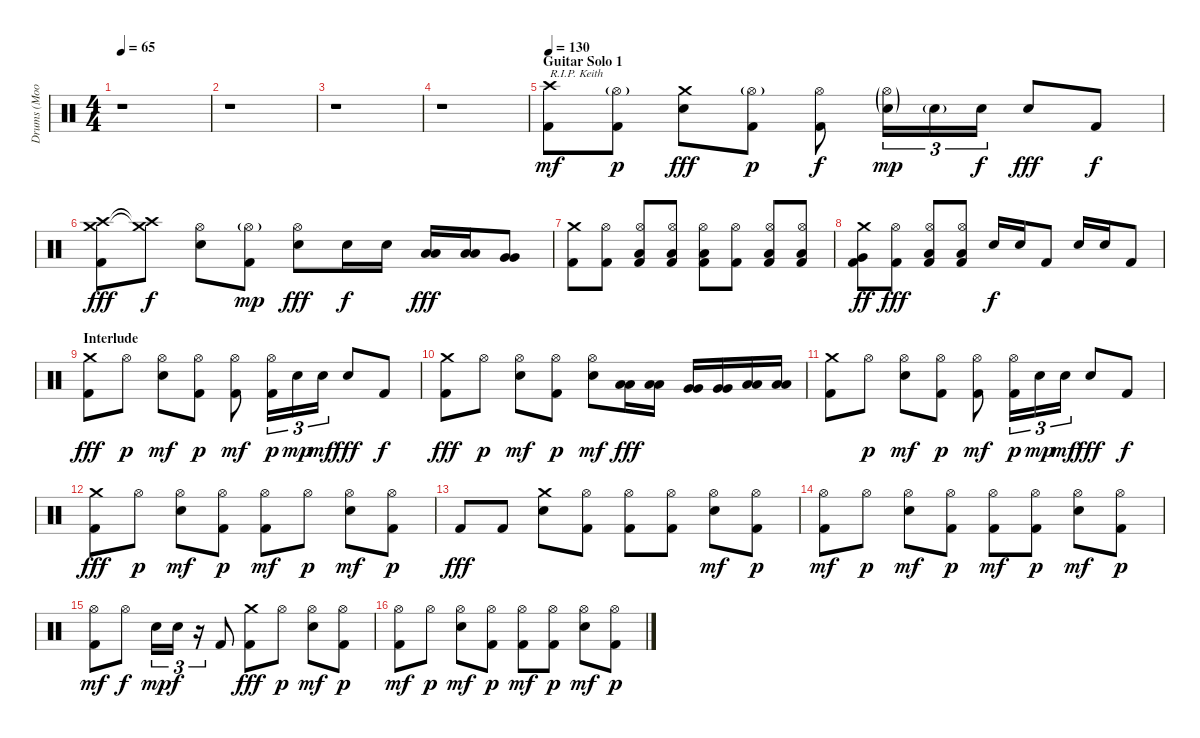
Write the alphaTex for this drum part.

\track ("Drums (Moon (Who else?))" "Drums (Moo") {instrument percussion}
\staff {score}
\articulation defaults
\ts (4 4)
\tempo 65
\clef neutral
\ks c
r.1{dy mf} |
r.1 |
r.1 |
r.1 |
\section ("" "Guitar Solo 1")
\tempo 130
("Crash high (hit)" "Kick (hit) 2").8{txt "R.I.P. Keith"} ("Hi-Hat (open)"{g} "Kick (hit) 2").8{dy p} ("Crash medium (hit)" "Snare (hit) 2").8{dy fff} ("Hi-Hat (open)"{g} "Kick (hit) 2").8{dy p} ("Hi-Hat (open)" "Kick (hit) 2").8{dy f} ("Hi-Hat (open)"{g} "Snare (hit) 2"{g}).16{tu (3 2) dy mp} "Snare (hit) 2"{g}.16{tu (3 2)} "Snare (hit) 2".16{tu (3 2) dy f} "Snare (hit) 2".8{dy fff} "Kick (hit) 2".8{dy f} |
("Crash medium (hit)" "Crash high (hit)" "Kick (hit) 2").8{dy fff} ("Crash medium (hit)"{t} "Crash high (hit)"{t}).8{dy f} ("Hi-Hat (open)" "Snare (hit) 2").8 ("Hi-Hat (open)"{g} "Kick (hit) 2").8{dy mp} ("Hi-Hat (open)" "Snare (hit) 2").8{dy fff} "Snare (hit) 2".16{dy f} "Snare (hit) 2".16 ("Low Tom (hit)" "Low Tom (hit)").16{dy fff} ("Low Tom (hit)" "Low Tom (hit)").16 ("Very Low Tom (hit)" "Very Low Tom (hit)").8 |
("Crash medium (hit)" "Kick (hit) 2").8 ("Hi-Hat (open)" "Kick (hit) 2").8 ("Hi-Hat (open)" "Low Tom (hit)" "Kick (hit) 2").8 ("Hi-Hat (open)" "Low Tom (hit)" "Kick (hit) 2").8 ("Hi-Hat (open)" "Low Tom (hit)" "Kick (hit) 2").8 ("Hi-Hat (open)" "Kick (hit) 2").8 ("Hi-Hat (open)" "Low Tom (hit)" "Kick (hit) 2").8 ("Hi-Hat (open)" "Low Tom (hit)" "Kick (hit) 2").8 |
("Crash medium (hit)" "Very Low Tom (hit)" "Kick (hit) 2").8{dy ff} ("Hi-Hat (open)" "Kick (hit) 2").8{dy fff} ("Hi-Hat (open)" "Low Tom (hit)" "Kick (hit) 2").8 ("Hi-Hat (open)" "Low Floor Tom (hit)" "Kick (hit) 2").8 "Snare (hit) 2".16{dy f} "Snare (hit) 2".16 "Kick (hit) 2".8 "Snare (hit) 2".16 "Snare (hit) 2".16 "Kick (hit) 2".8 |
\section ("" "Interlude")
("Crash medium (hit)" "Kick (hit) 2").8{dy fff volume 16} "Hi-Hat (open)".8{dy p} ("Hi-Hat (open)" "Snare (hit) 2").8{dy mf} ("Hi-Hat (open)" "Kick (hit) 2").8{dy p} ("Hi-Hat (open)" "Kick (hit) 2").8{dy mf} ("Hi-Hat (open)" "Kick (hit) 2").16{tu (3 2) dy p} "Snare (hit) 2".16{tu (3 2) dy mp} "Snare (hit) 2".16{tu (3 2) dy mf} "Snare (hit) 2".8{dy fff} "Kick (hit) 2".8{dy f} |
("Crash medium (hit)" "Kick (hit) 2").8{dy fff} "Hi-Hat (open)".8{dy p} ("Hi-Hat (open)" "Snare (hit) 2").8{dy mf} ("Hi-Hat (open)" "Kick (hit) 2").8{dy p} ("Hi-Hat (open)" "Snare (hit) 2").8{dy mf} ("Low Tom (hit)" "Low Tom (hit)").16{dy fff} ("Low Tom (hit)" "Low Tom (hit)").16 ("Very Low Tom (hit)" "Very Low Tom (hit)").16 ("Very Low Tom (hit)" "Very Low Tom (hit)").16 ("Low Floor Tom (hit)" "Low Floor Tom (hit)").16 ("Low Floor Tom (hit)" "Low Floor Tom (hit)").16 |
("Crash medium (hit)" "Kick (hit) 2").8 "Hi-Hat (open)".8{dy p} ("Hi-Hat (open)" "Snare (hit) 2").8{dy mf} ("Hi-Hat (open)" "Kick (hit) 2").8{dy p} ("Hi-Hat (open)" "Kick (hit) 2").8{dy mf} ("Hi-Hat (open)" "Kick (hit) 2").16{tu (3 2) dy p} "Snare (hit) 2".16{tu (3 2) dy mp} "Snare (hit) 2".16{tu (3 2) dy mf} "Snare (hit) 2".8{dy fff} "Kick (hit) 2".8{dy f} |
("Crash medium (hit)" "Kick (hit) 2").8{dy fff} "Hi-Hat (open)".8{dy p} ("Hi-Hat (open)" "Snare (hit) 2").8{dy mf} ("Hi-Hat (open)" "Kick (hit) 2").8{dy p} ("Hi-Hat (open)" "Kick (hit) 2").8{dy mf} "Hi-Hat (open)".8{dy p} ("Hi-Hat (open)" "Snare (hit) 2").8{dy mf} ("Hi-Hat (open)" "Kick (hit) 2").8{dy p} |
"Kick (hit) 2".8{dy fff} "Kick (hit) 2".8 ("Crash medium (hit)" "Snare (hit) 2").8 ("Hi-Hat (open)" "Kick (hit) 2").8 ("Hi-Hat (open)" "Kick (hit) 2").8 ("Hi-Hat (open)" "Kick (hit) 2").8 ("Hi-Hat (open)" "Snare (hit) 2").8{dy mf} ("Hi-Hat (open)" "Kick (hit) 2").8{dy p} |
("Hi-Hat (open)" "Kick (hit) 2").8{dy mf} "Hi-Hat (open)".8{dy p} ("Hi-Hat (open)" "Snare (hit) 2").8{dy mf} ("Hi-Hat (open)" "Kick (hit) 2").8{dy p} ("Hi-Hat (open)" "Kick (hit) 2").8{dy mf} ("Hi-Hat (open)" "Kick (hit) 2").8{dy p} ("Hi-Hat (open)" "Snare (hit) 2").8{dy mf} ("Hi-Hat (open)" "Kick (hit) 2").8{dy p} |
("Hi-Hat (open)" "Kick (hit) 2").8{dy mf} "Hi-Hat (open)".8{dy f} "Snare (hit) 2".16{tu (3 2) dy mp} "Snare (hit) 2".16{tu (3 2) dy f} r.16{tu (3 2)} "Kick (hit) 2".8 ("Crash medium (hit)" "Kick (hit) 2").8{dy fff} "Hi-Hat (open)".8{dy p} ("Hi-Hat (open)" "Snare (hit) 2").8{dy mf} ("Hi-Hat (open)" "Kick (hit) 2").8{dy p} |
("Hi-Hat (open)" "Kick (hit) 2").8{dy mf} "Hi-Hat (open)".8{dy p} ("Hi-Hat (open)" "Snare (hit) 2").8{dy mf} ("Hi-Hat (open)" "Kick (hit) 2").8{dy p} ("Hi-Hat (open)" "Kick (hit) 2").8{dy mf} ("Hi-Hat (open)" "Kick (hit) 2").8{dy p} ("Hi-Hat (open)" "Snare (hit) 2").8{dy mf} ("Hi-Hat (open)" "Kick (hit) 2").8{dy p}
